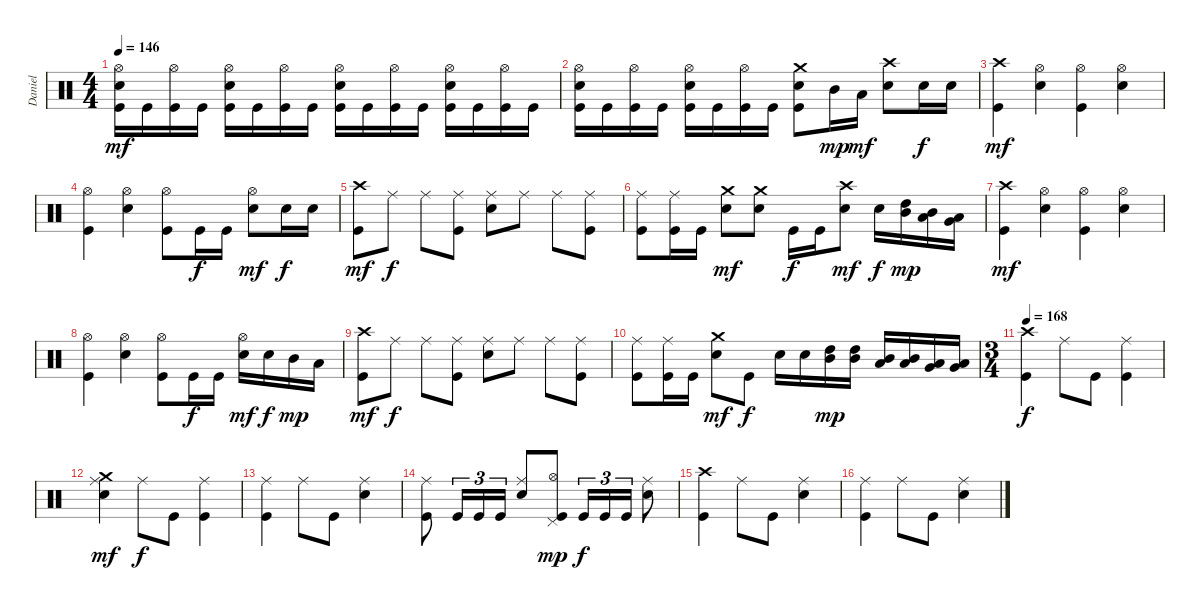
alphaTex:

\track ("Daniel" "Daniel") {instrument percussion}
\staff {score}
\articulation defaults
\ts (4 4)
\tempo 146
\clef neutral
\ks c
("Kick (hit)" "Electric Snare (hit)" "Hi-Hat (open)").16{dy mf} "Kick (hit)".16 ("Kick (hit)" "Hi-Hat (open)").16 "Kick (hit)".16 ("Kick (hit)" "Electric Snare (hit)" "Hi-Hat (open)").16 "Kick (hit)".16 ("Kick (hit)" "Hi-Hat (open)").16 "Kick (hit)".16 ("Kick (hit)" "Electric Snare (hit)" "Hi-Hat (open)").16 "Kick (hit)".16 ("Kick (hit)" "Hi-Hat (open)").16 "Kick (hit)".16 ("Kick (hit)" "Electric Snare (hit)" "Hi-Hat (open)").16 "Kick (hit)".16 ("Kick (hit)" "Hi-Hat (open)").16 "Kick (hit)".16 |
("Kick (hit)" "Electric Snare (hit)" "Hi-Hat (open)").16 "Kick (hit)".16 ("Kick (hit)" "Hi-Hat (open)").16 "Kick (hit)".16 ("Kick (hit)" "Electric Snare (hit)" "Hi-Hat (open)").16 "Kick (hit)".16 ("Kick (hit)" "Hi-Hat (open)").16 "Kick (hit)".16 ("Kick (hit)" "Electric Snare (hit)" "Crash medium (hit)").8 "Mid Tom (hit)".16{dy mp} "Low Tom (hit)".16{dy mf} ("Electric Snare (hit)" "Crash high (hit)").8 "Electric Snare (hit)".16{dy f} "Electric Snare (hit)".16 |
("Kick (hit)" "Crash high (hit)").4{dy mf} ("Electric Snare (hit)" "Hi-Hat (open)").4 ("Kick (hit)" "Hi-Hat (open)").4 ("Electric Snare (hit)" "Hi-Hat (open)").4 |
("Kick (hit)" "Hi-Hat (open)").4 ("Electric Snare (hit)" "Hi-Hat (open)").4 ("Kick (hit)" "Hi-Hat (open)").8 "Kick (hit)".16{dy f} "Kick (hit)".16 ("Electric Snare (hit)" "Hi-Hat (open)").8{dy mf} "Electric Snare (hit)".16{dy f} "Electric Snare (hit)".16 |
("Kick (hit)" "Crash high (hit)").8{dy mf} "Ride (middle)".8{dy f} "Ride (middle)".8 ("Kick (hit)" "Ride (middle)").8 ("Electric Snare (hit)" "Ride (middle)").8 "Ride (middle)".8 "Ride (middle)".8 ("Kick (hit)" "Ride (middle)").8 |
("Kick (hit)" "Ride (middle)").8 ("Kick (hit)" "Ride (middle)").16 "Kick (hit)".16 ("Electric Snare (hit)" "Crash medium (hit)").8{dy mf} ("Electric Snare (hit)" "Crash medium (hit)").8 "Kick (hit)".16{dy f} "Kick (hit)".16 ("Electric Snare (hit)" "Crash high (hit)").8{dy mf} "Electric Snare (hit)".16{dy f} ("Mid Tom (hit)" "High Tom (hit)").16{dy mp} ("Low Tom (hit)" "Mid Tom (hit)").16 ("Very Low Tom (hit)" "Low Tom (hit)").16 |
("Kick (hit)" "Crash high (hit)").4{dy mf} ("Electric Snare (hit)" "Hi-Hat (open)").4 ("Kick (hit)" "Hi-Hat (open)").4 ("Electric Snare (hit)" "Hi-Hat (open)").4 |
("Kick (hit)" "Hi-Hat (open)").4 ("Electric Snare (hit)" "Hi-Hat (open)").4 ("Kick (hit)" "Hi-Hat (open)").8 "Kick (hit)".16{dy f} "Kick (hit)".16 ("Electric Snare (hit)" "Hi-Hat (open)").16{dy mf} "Electric Snare (hit)".16{dy f} "Mid Tom (hit)".16{dy mp} "Low Tom (hit)".16 |
("Kick (hit)" "Crash high (hit)").8{dy mf} "Ride (middle)".8{dy f} "Ride (middle)".8 ("Kick (hit)" "Ride (middle)").8 ("Electric Snare (hit)" "Ride (middle)").8 "Ride (middle)".8 "Ride (middle)".8 ("Kick (hit)" "Ride (middle)").8 |
("Kick (hit)" "Ride (middle)").8 ("Kick (hit)" "Ride (middle)").16 "Kick (hit)".16 ("Electric Snare (hit)" "Crash medium (hit)").8{dy mf} "Kick (hit)".8{dy f} "Electric Snare (hit)".16 "Electric Snare (hit)".16 ("High Tom (hit)" "Mid Tom (hit)").16{dy mp} ("High Tom (hit)" "Mid Tom (hit)").16 ("Mid Tom (hit)" "Low Tom (hit)").16 ("Mid Tom (hit)" "Low Tom (hit)").16 ("Low Tom (hit)" "Very Low Tom (hit)").16 ("Low Tom (hit)" "Very Low Tom (hit)").16 |
\ts (3 4)
\tempo 168
("Kick (hit)" "Crash high (hit)").4{dy f} "Ride (middle)".8 "Kick (hit)".8 ("Kick (hit)" "Ride (middle)").4 |
("Electric Snare (hit)" "Ride (middle)" "Crash medium (hit)").4{dy mf} "Ride (middle)".8{dy f} "Kick (hit)".8 ("Kick (hit)" "Ride (middle)").4 |
("Kick (hit)" "Ride (middle)").4 "Ride (middle)".8 "Kick (hit)".8 ("Electric Snare (hit)" "Ride (middle)").4 |
("Kick (hit)" "Ride (middle)").8 "Kick (hit)".16{tu (3 2)} "Kick (hit)".16{tu (3 2)} "Kick (hit)".16{tu (3 2)} ("Electric Snare (hit)" "Ride (middle)").8 ("Kick (hit)" "Pedal Hi-Hat (hit)" "Hi-Hat (open)").8{dy mp} "Kick (hit)".16{tu (3 2) dy f} "Kick (hit)".16{tu (3 2)} "Kick (hit)".16{tu (3 2)} ("Electric Snare (hit)" "Ride (middle)").8 |
("Kick (hit)" "Crash high (hit)").4 "Ride (middle)".8 "Kick (hit)".8 ("Electric Snare (hit)" "Ride (middle)").4 |
("Kick (hit)" "Ride (middle)").4 "Ride (middle)".8 "Kick (hit)".8 ("Electric Snare (hit)" "Ride (middle)").4
